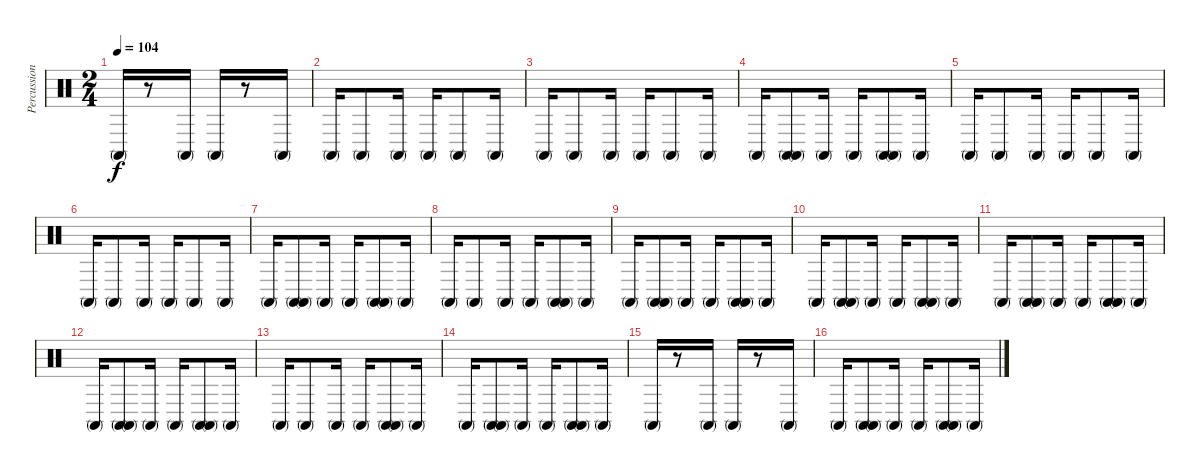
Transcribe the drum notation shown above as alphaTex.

\track ("Percussion" "Percussion") {instrument percussion}
\staff {score}
\articulation defaults
\ts (2 4)
\tempo 104
\clef neutral
\ks c "Conga high (mute)".16{dy f}
r.8 "Conga high (mute)".16 "Conga high (mute)".16 r.8 "Conga high (mute)".16 |
"Conga high (mute)".16 "Conga high (mute)".8 "Conga high (mute)".16 "Conga high (mute)".16 "Conga high (mute)".8 "Conga high (mute)".16 |
"Conga high (mute)".16 "Conga high (mute)".8 "Conga high (mute)".16 "Conga high (mute)".16 "Conga high (mute)".8 "Conga high (mute)".16 |
"Conga high (mute)".16 ("Conga high (mute)" "Conga high (mute)").8 "Conga high (mute)".16 "Conga high (mute)".16 ("Conga high (mute)" "Conga high (mute)").8 "Conga high (mute)".16 |
"Conga high (mute)".16 "Conga high (mute)".8 "Conga high (mute)".16 "Conga high (mute)".16 "Conga high (mute)".8 "Conga high (mute)".16 |
"Conga high (mute)".16 "Conga high (mute)".8 "Conga high (mute)".16 "Conga high (mute)".16 "Conga high (mute)".8 "Conga high (mute)".16 |
"Conga high (mute)".16 ("Conga high (mute)" "Conga high (mute)").8 "Conga high (mute)".16 "Conga high (mute)".16 ("Conga high (mute)" "Conga high (mute)").8 "Conga high (mute)".16 |
"Conga high (mute)".16 "Conga high (mute)".8 "Conga high (mute)".16 "Conga high (mute)".16 ("Conga high (mute)" "Conga high (mute)").8 "Conga high (mute)".16 |
"Conga high (mute)".16 ("Conga high (mute)" "Conga high (mute)").8 "Conga high (mute)".16 "Conga high (mute)".16 ("Conga high (mute)" "Conga high (mute)").8 "Conga high (mute)".16 |
"Conga high (mute)".16 ("Conga high (mute)" "Conga high (mute)").8 "Conga high (mute)".16 "Conga high (mute)".16 ("Conga high (mute)" "Conga high (mute)").8 "Conga high (mute)".16 |
"Conga high (mute)".16 ("Conga high (mute)" "Conga high (mute)").8 "Conga high (mute)".16 "Conga high (mute)".16 ("Conga high (mute)" "Conga high (mute)").8 "Conga high (mute)".16 |
"Conga high (mute)".16 ("Conga high (mute)" "Conga high (mute)").8 "Conga high (mute)".16 "Conga high (mute)".16 ("Conga high (mute)" "Conga high (mute)").8 "Conga high (mute)".16 |
"Conga high (mute)".16 "Conga high (mute)".8 "Conga high (mute)".16 "Conga high (mute)".16 ("Conga high (mute)" "Conga high (mute)").8 "Conga high (mute)".16 |
"Conga high (mute)".16 ("Conga high (mute)" "Conga high (mute)").8 "Conga high (mute)".16 "Conga high (mute)".16 ("Conga high (mute)" "Conga high (mute)").8 "Conga high (mute)".16 |
"Conga high (mute)".16 r.8 "Conga high (mute)".16 "Conga high (mute)".16 r.8 "Conga high (mute)".16 |
"Conga high (mute)".16 ("Conga high (mute)" "Conga high (mute)").8 "Conga high (mute)".16 "Conga high (mute)".16 ("Conga high (mute)" "Conga high (mute)").8 "Conga high (mute)".16
